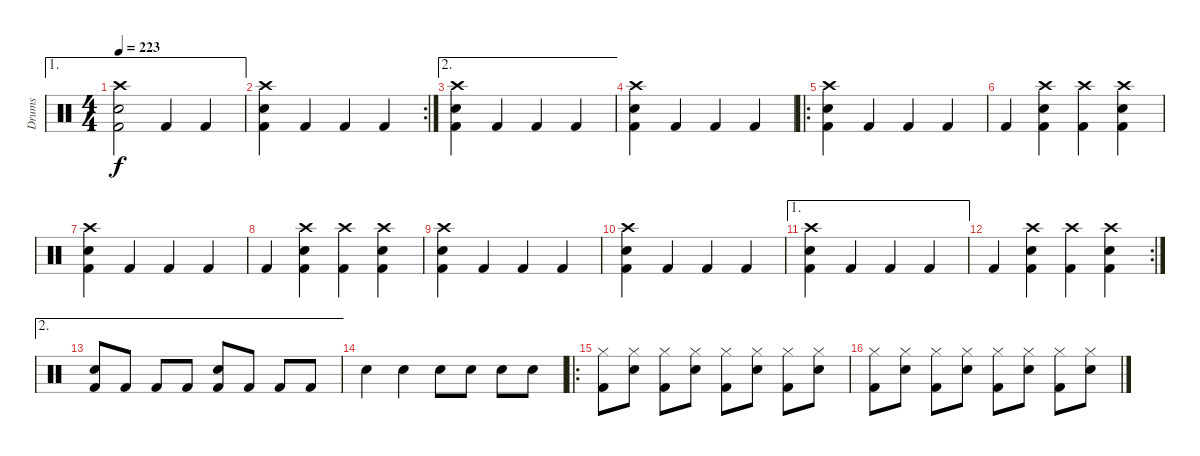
\track ("Drums" "Drums") {instrument percussion}
\staff {score}
\articulation defaults
\ae 1
\ts (4 4)
\tempo 223
\clef neutral
\ks c
("Crash high (hit)" "Snare (hit) 2" "Kick (hit) 2").2{dy f} "Kick (hit) 2".4 "Kick (hit) 2".4 |
\rc 2
("Crash high (hit)" "Snare (hit) 2" "Kick (hit) 2").4 "Kick (hit) 2".4 "Kick (hit) 2".4 "Kick (hit) 2".4 |
\ae 2
("Crash high (hit)" "Snare (hit) 2" "Kick (hit) 2").4 "Kick (hit) 2".4 "Kick (hit) 2".4 "Kick (hit) 2".4 |
("Crash high (hit)" "Snare (hit) 2" "Kick (hit) 2").4 "Kick (hit) 2".4 "Kick (hit) 2".4 "Kick (hit) 2".4 |
\ro
("Crash high (hit)" "Snare (hit) 2" "Kick (hit) 2").4 "Kick (hit) 2".4 "Kick (hit) 2".4 "Kick (hit) 2".4 |
"Kick (hit) 2".4 ("Crash high (hit)" "Snare (hit) 2" "Kick (hit) 2").4 ("Crash high (hit)" "Kick (hit) 2").4 ("Crash high (hit)" "Snare (hit) 2" "Kick (hit) 2").4 |
("Crash high (hit)" "Snare (hit) 2" "Kick (hit) 2").4 "Kick (hit) 2".4 "Kick (hit) 2".4 "Kick (hit) 2".4 |
"Kick (hit) 2".4 ("Crash high (hit)" "Snare (hit) 2" "Kick (hit) 2").4 ("Crash high (hit)" "Kick (hit) 2").4 ("Crash high (hit)" "Snare (hit) 2" "Kick (hit) 2").4 |
("Crash high (hit)" "Snare (hit) 2" "Kick (hit) 2").4 "Kick (hit) 2".4 "Kick (hit) 2".4 "Kick (hit) 2".4 |
("Crash high (hit)" "Snare (hit) 2" "Kick (hit) 2").4 "Kick (hit) 2".4 "Kick (hit) 2".4 "Kick (hit) 2".4 |
\ae 1
("Crash high (hit)" "Snare (hit) 2" "Kick (hit) 2").4 "Kick (hit) 2".4 "Kick (hit) 2".4 "Kick (hit) 2".4 |
\rc 2 "Kick (hit) 2".4
("Crash high (hit)" "Snare (hit) 2" "Kick (hit) 2").4 ("Crash high (hit)" "Kick (hit) 2").4 ("Crash high (hit)" "Snare (hit) 2" "Kick (hit) 2").4 |
\ae 2
("Snare (hit) 2" "Kick (hit) 2").8 "Kick (hit) 2".8 "Kick (hit) 2".8 "Kick (hit) 2".8 ("Snare (hit) 2" "Kick (hit) 2").8 "Kick (hit) 2".8 "Kick (hit) 2".8 "Kick (hit) 2".8 |
"Snare (hit) 2".4 "Snare (hit) 2".4 "Snare (hit) 2".8 "Snare (hit) 2".8 "Snare (hit) 2".8 "Snare (hit) 2".8 |
\ro
("Hi-Hat (closed)" "Kick (hit) 2").8 ("Hi-Hat (closed)" "Snare (hit) 2").8 ("Hi-Hat (closed)" "Kick (hit) 2").8 ("Hi-Hat (closed)" "Snare (hit) 2").8 ("Hi-Hat (closed)" "Kick (hit) 2").8 ("Hi-Hat (closed)" "Snare (hit) 2").8 ("Hi-Hat (closed)" "Kick (hit) 2").8 ("Hi-Hat (closed)" "Snare (hit) 2").8 |
("Hi-Hat (closed)" "Kick (hit) 2").8 ("Hi-Hat (closed)" "Snare (hit) 2").8 ("Hi-Hat (closed)" "Kick (hit) 2").8 ("Hi-Hat (closed)" "Snare (hit) 2").8 ("Hi-Hat (closed)" "Kick (hit) 2").8 ("Hi-Hat (closed)" "Snare (hit) 2").8 ("Hi-Hat (closed)" "Kick (hit) 2").8 ("Hi-Hat (closed)" "Snare (hit) 2").8
